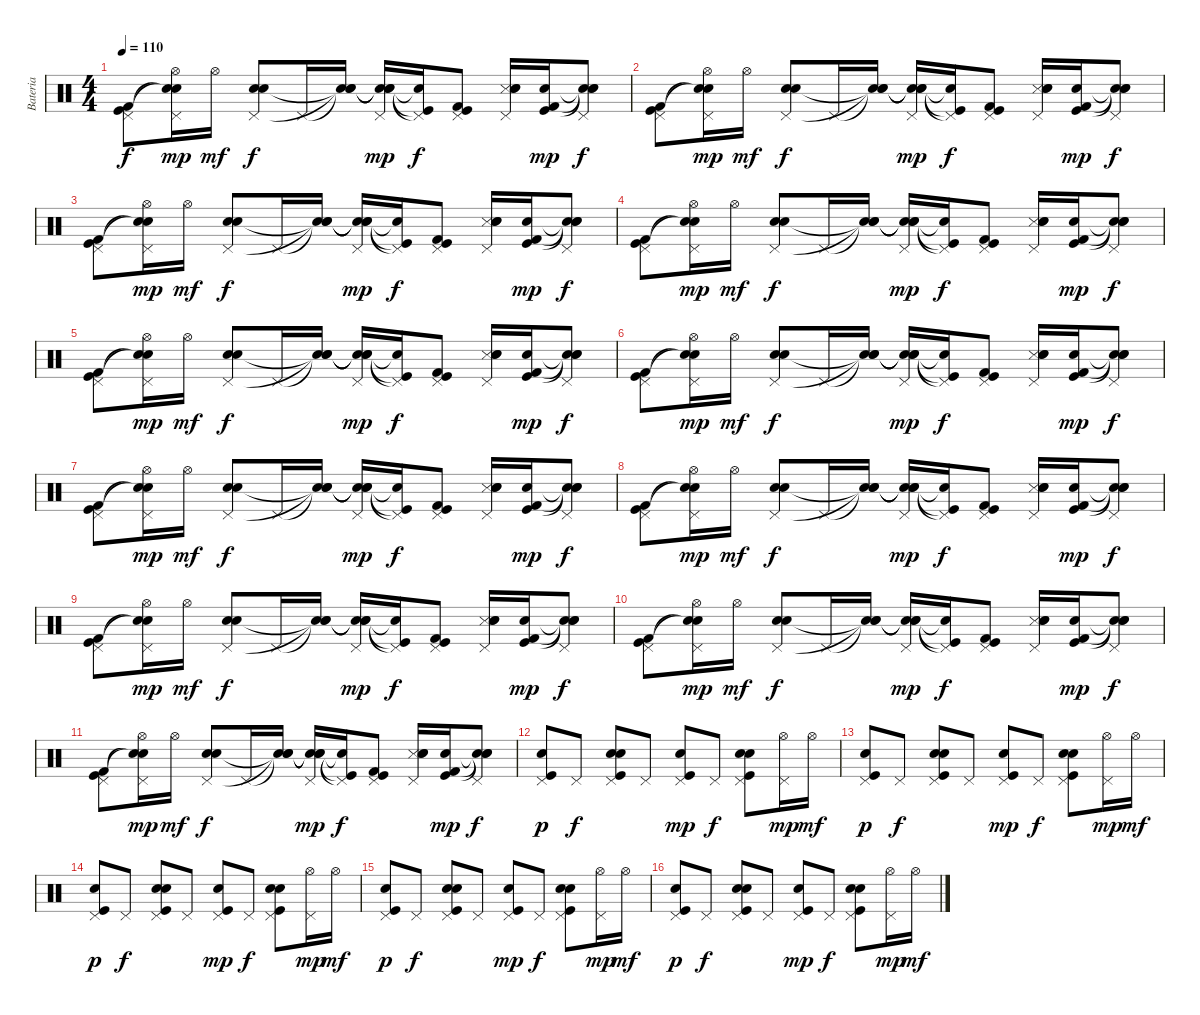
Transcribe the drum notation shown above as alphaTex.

\track ("Bateria" "Bateria") {instrument percussion}
\staff {score}
\articulation defaults
\ts (4 4)
\tempo 110
\clef neutral
\ks c
("Kick (hit)" "Kick (hit) 2" "Pedal Hi-Hat (hit)").8{dy f} ("Snare (hit)"{t} "Snare (hit)"{t} "Hi-Hat (open)" "Pedal Hi-Hat (hit)").16{dy mp} "Hi-Hat (open)".16{dy mf} ("Snare (hit) 2" "Electric Snare (hit)" "Pedal Hi-Hat (hit)").8{dy f} "Pedal Hi-Hat (hit)".16 ("Snare (hit)"{t} "Snare (hit)"{t} "Snare (hit)"{t}).16 ("Snare (hit)"{t} "Snare (hit)"{t} "Snare (hit)"{t} "Pedal Hi-Hat (hit)").16{dy mp} ("Snare (hit) 2"{t} "Pedal Hi-Hat (hit)"{t} "Kick (hit)"{t}).16{dy f} ("Kick (hit) 2" "Kick (hit)" "Pedal Hi-Hat (hit)").8 ("Snare (side stick) 3" "Electric Snare (hit)" "Snare (hit) 2" "Pedal Hi-Hat (hit)").16 ("Kick (hit) 2" "Snare (hit) 2" "Kick (hit)").16{dy mp} ("Snare (hit)"{t} "Snare (hit)"{t} "Snare (hit)"{t} "Pedal Hi-Hat (hit)").8{dy f} |
("Kick (hit)" "Kick (hit) 2" "Pedal Hi-Hat (hit)").8 ("Snare (hit)"{t} "Snare (hit)"{t} "Hi-Hat (open)" "Pedal Hi-Hat (hit)").16{dy mp} "Hi-Hat (open)".16{dy mf} ("Snare (hit) 2" "Electric Snare (hit)" "Pedal Hi-Hat (hit)").8{dy f} "Pedal Hi-Hat (hit)".16 ("Snare (hit)"{t} "Snare (hit)"{t} "Snare (hit)"{t}).16 ("Snare (hit)"{t} "Snare (hit)"{t} "Snare (hit)"{t} "Pedal Hi-Hat (hit)").16{dy mp} ("Snare (hit) 2"{t} "Pedal Hi-Hat (hit)"{t} "Kick (hit)"{t}).16{dy f} ("Kick (hit) 2" "Kick (hit)" "Pedal Hi-Hat (hit)").8 ("Snare (side stick) 3" "Electric Snare (hit)" "Snare (hit) 2" "Pedal Hi-Hat (hit)").16 ("Kick (hit) 2" "Snare (hit) 2" "Kick (hit)").16{dy mp} ("Snare (hit)"{t} "Snare (hit)"{t} "Snare (hit)"{t} "Pedal Hi-Hat (hit)").8{dy f} |
("Kick (hit)" "Kick (hit) 2" "Pedal Hi-Hat (hit)").8 ("Snare (hit)"{t} "Snare (hit)"{t} "Hi-Hat (open)" "Pedal Hi-Hat (hit)").16{dy mp} "Hi-Hat (open)".16{dy mf} ("Snare (hit) 2" "Electric Snare (hit)" "Pedal Hi-Hat (hit)").8{dy f} "Pedal Hi-Hat (hit)".16 ("Snare (hit)"{t} "Snare (hit)"{t} "Snare (hit)"{t}).16 ("Snare (hit)"{t} "Snare (hit)"{t} "Snare (hit)"{t} "Pedal Hi-Hat (hit)").16{dy mp} ("Snare (hit) 2"{t} "Pedal Hi-Hat (hit)"{t} "Kick (hit)"{t}).16{dy f} ("Kick (hit) 2" "Kick (hit)" "Pedal Hi-Hat (hit)").8 ("Snare (side stick) 3" "Electric Snare (hit)" "Snare (hit) 2" "Pedal Hi-Hat (hit)").16 ("Kick (hit) 2" "Snare (hit) 2" "Kick (hit)").16{dy mp} ("Snare (hit)"{t} "Snare (hit)"{t} "Snare (hit)"{t} "Pedal Hi-Hat (hit)").8{dy f} |
("Kick (hit)" "Kick (hit) 2" "Pedal Hi-Hat (hit)").8 ("Snare (hit)"{t} "Snare (hit)"{t} "Hi-Hat (open)" "Pedal Hi-Hat (hit)").16{dy mp} "Hi-Hat (open)".16{dy mf} ("Snare (hit) 2" "Electric Snare (hit)" "Pedal Hi-Hat (hit)").8{dy f} "Pedal Hi-Hat (hit)".16 ("Snare (hit)"{t} "Snare (hit)"{t} "Snare (hit)"{t}).16 ("Snare (hit)"{t} "Snare (hit)"{t} "Snare (hit)"{t} "Pedal Hi-Hat (hit)").16{dy mp} ("Snare (hit) 2"{t} "Pedal Hi-Hat (hit)"{t} "Kick (hit)"{t}).16{dy f} ("Kick (hit) 2" "Kick (hit)" "Pedal Hi-Hat (hit)").8 ("Snare (side stick) 3" "Electric Snare (hit)" "Snare (hit) 2" "Pedal Hi-Hat (hit)").16 ("Kick (hit) 2" "Snare (hit) 2" "Kick (hit)").16{dy mp} ("Snare (hit)"{t} "Snare (hit)"{t} "Snare (hit)"{t} "Pedal Hi-Hat (hit)").8{dy f} |
("Kick (hit)" "Kick (hit) 2" "Pedal Hi-Hat (hit)").8 ("Snare (hit)"{t} "Snare (hit)"{t} "Hi-Hat (open)" "Pedal Hi-Hat (hit)").16{dy mp} "Hi-Hat (open)".16{dy mf} ("Snare (hit) 2" "Electric Snare (hit)" "Pedal Hi-Hat (hit)").8{dy f} "Pedal Hi-Hat (hit)".16 ("Snare (hit)"{t} "Snare (hit)"{t} "Snare (hit)"{t}).16 ("Snare (hit)"{t} "Snare (hit)"{t} "Snare (hit)"{t} "Pedal Hi-Hat (hit)").16{dy mp} ("Snare (hit) 2"{t} "Pedal Hi-Hat (hit)"{t} "Kick (hit)"{t}).16{dy f} ("Kick (hit) 2" "Kick (hit)" "Pedal Hi-Hat (hit)").8 ("Snare (side stick) 3" "Electric Snare (hit)" "Snare (hit) 2" "Pedal Hi-Hat (hit)").16 ("Kick (hit) 2" "Snare (hit) 2" "Kick (hit)").16{dy mp} ("Snare (hit)"{t} "Snare (hit)"{t} "Snare (hit)"{t} "Pedal Hi-Hat (hit)").8{dy f} |
("Kick (hit)" "Kick (hit) 2" "Pedal Hi-Hat (hit)").8 ("Snare (hit)"{t} "Snare (hit)"{t} "Hi-Hat (open)" "Pedal Hi-Hat (hit)").16{dy mp} "Hi-Hat (open)".16{dy mf} ("Snare (hit) 2" "Electric Snare (hit)" "Pedal Hi-Hat (hit)").8{dy f} "Pedal Hi-Hat (hit)".16 ("Snare (hit)"{t} "Snare (hit)"{t} "Snare (hit)"{t}).16 ("Snare (hit)"{t} "Snare (hit)"{t} "Snare (hit)"{t} "Pedal Hi-Hat (hit)").16{dy mp} ("Snare (hit) 2"{t} "Pedal Hi-Hat (hit)"{t} "Kick (hit)"{t}).16{dy f} ("Kick (hit) 2" "Kick (hit)" "Pedal Hi-Hat (hit)").8 ("Snare (side stick) 3" "Electric Snare (hit)" "Snare (hit) 2" "Pedal Hi-Hat (hit)").16 ("Kick (hit) 2" "Snare (hit) 2" "Kick (hit)").16{dy mp} ("Snare (hit)"{t} "Snare (hit)"{t} "Snare (hit)"{t} "Pedal Hi-Hat (hit)").8{dy f} |
("Kick (hit)" "Kick (hit) 2" "Pedal Hi-Hat (hit)").8 ("Snare (hit)"{t} "Snare (hit)"{t} "Hi-Hat (open)" "Pedal Hi-Hat (hit)").16{dy mp} "Hi-Hat (open)".16{dy mf} ("Snare (hit) 2" "Electric Snare (hit)" "Pedal Hi-Hat (hit)").8{dy f} "Pedal Hi-Hat (hit)".16 ("Snare (hit)"{t} "Snare (hit)"{t} "Snare (hit)"{t}).16 ("Snare (hit)"{t} "Snare (hit)"{t} "Snare (hit)"{t} "Pedal Hi-Hat (hit)").16{dy mp} ("Snare (hit) 2"{t} "Pedal Hi-Hat (hit)"{t} "Kick (hit)"{t}).16{dy f} ("Kick (hit) 2" "Kick (hit)" "Pedal Hi-Hat (hit)").8 ("Snare (side stick) 3" "Electric Snare (hit)" "Snare (hit) 2" "Pedal Hi-Hat (hit)").16 ("Kick (hit) 2" "Snare (hit) 2" "Kick (hit)").16{dy mp} ("Snare (hit)"{t} "Snare (hit)"{t} "Snare (hit)"{t} "Pedal Hi-Hat (hit)").8{dy f} |
("Kick (hit)" "Kick (hit) 2" "Pedal Hi-Hat (hit)").8 ("Snare (hit)"{t} "Snare (hit)"{t} "Hi-Hat (open)" "Pedal Hi-Hat (hit)").16{dy mp} "Hi-Hat (open)".16{dy mf} ("Snare (hit) 2" "Electric Snare (hit)" "Pedal Hi-Hat (hit)").8{dy f} "Pedal Hi-Hat (hit)".16 ("Snare (hit)"{t} "Snare (hit)"{t} "Snare (hit)"{t}).16 ("Snare (hit)"{t} "Snare (hit)"{t} "Snare (hit)"{t} "Pedal Hi-Hat (hit)").16{dy mp} ("Snare (hit) 2"{t} "Pedal Hi-Hat (hit)"{t} "Kick (hit)"{t}).16{dy f} ("Kick (hit) 2" "Kick (hit)" "Pedal Hi-Hat (hit)").8 ("Snare (side stick) 3" "Electric Snare (hit)" "Snare (hit) 2" "Pedal Hi-Hat (hit)").16 ("Kick (hit) 2" "Snare (hit) 2" "Kick (hit)").16{dy mp} ("Snare (hit)"{t} "Snare (hit)"{t} "Snare (hit)"{t} "Pedal Hi-Hat (hit)").8{dy f} |
("Kick (hit)" "Kick (hit) 2" "Pedal Hi-Hat (hit)").8 ("Snare (hit)"{t} "Snare (hit)"{t} "Hi-Hat (open)" "Pedal Hi-Hat (hit)").16{dy mp} "Hi-Hat (open)".16{dy mf} ("Snare (hit) 2" "Electric Snare (hit)" "Pedal Hi-Hat (hit)").8{dy f} "Pedal Hi-Hat (hit)".16 ("Snare (hit)"{t} "Snare (hit)"{t} "Snare (hit)"{t}).16 ("Snare (hit)"{t} "Snare (hit)"{t} "Snare (hit)"{t} "Pedal Hi-Hat (hit)").16{dy mp} ("Snare (hit) 2"{t} "Pedal Hi-Hat (hit)"{t} "Kick (hit)"{t}).16{dy f} ("Kick (hit) 2" "Kick (hit)" "Pedal Hi-Hat (hit)").8 ("Snare (side stick) 3" "Electric Snare (hit)" "Snare (hit) 2" "Pedal Hi-Hat (hit)").16 ("Kick (hit) 2" "Snare (hit) 2" "Kick (hit)").16{dy mp} ("Snare (hit)"{t} "Snare (hit)"{t} "Snare (hit)"{t} "Pedal Hi-Hat (hit)").8{dy f} |
("Kick (hit)" "Kick (hit) 2" "Pedal Hi-Hat (hit)").8 ("Snare (hit)"{t} "Snare (hit)"{t} "Hi-Hat (open)" "Pedal Hi-Hat (hit)").16{dy mp} "Hi-Hat (open)".16{dy mf} ("Snare (hit) 2" "Electric Snare (hit)" "Pedal Hi-Hat (hit)").8{dy f} "Pedal Hi-Hat (hit)".16 ("Snare (hit)"{t} "Snare (hit)"{t} "Snare (hit)"{t}).16 ("Snare (hit)"{t} "Snare (hit)"{t} "Snare (hit)"{t} "Pedal Hi-Hat (hit)").16{dy mp} ("Snare (hit) 2"{t} "Pedal Hi-Hat (hit)"{t} "Kick (hit)"{t}).16{dy f} ("Kick (hit) 2" "Kick (hit)" "Pedal Hi-Hat (hit)").8 ("Snare (side stick) 3" "Electric Snare (hit)" "Snare (hit) 2" "Pedal Hi-Hat (hit)").16 ("Kick (hit) 2" "Snare (hit) 2" "Kick (hit)").16{dy mp} ("Snare (hit)"{t} "Snare (hit)"{t} "Snare (hit)"{t} "Pedal Hi-Hat (hit)").8{dy f} |
("Kick (hit)" "Kick (hit) 2" "Pedal Hi-Hat (hit)").8 ("Snare (hit)"{t} "Snare (hit)"{t} "Hi-Hat (open)" "Pedal Hi-Hat (hit)").16{dy mp} "Hi-Hat (open)".16{dy mf} ("Snare (hit) 2" "Electric Snare (hit)" "Pedal Hi-Hat (hit)").8{dy f} "Pedal Hi-Hat (hit)".16 ("Snare (hit)"{t} "Snare (hit)"{t} "Snare (hit)"{t}).16 ("Snare (hit)"{t} "Snare (hit)"{t} "Snare (hit)"{t} "Pedal Hi-Hat (hit)").16{dy mp} ("Snare (hit) 2"{t} "Pedal Hi-Hat (hit)"{t} "Kick (hit)"{t}).16{dy f} ("Kick (hit) 2" "Kick (hit)" "Pedal Hi-Hat (hit)").8 ("Snare (side stick) 3" "Electric Snare (hit)" "Snare (hit) 2" "Pedal Hi-Hat (hit)").16 ("Kick (hit) 2" "Snare (hit) 2" "Kick (hit)").16{dy mp} ("Snare (hit)"{t} "Snare (hit)"{t} "Snare (hit)"{t} "Pedal Hi-Hat (hit)").8{dy f} |
("Kick (hit)" "Electric Snare (hit)" "Pedal Hi-Hat (hit)").8{dy p} "Pedal Hi-Hat (hit)".8{dy f} ("Kick (hit)" "Electric Snare (hit)" "Snare (hit) 2" "Pedal Hi-Hat (hit)").8 "Pedal Hi-Hat (hit)".8 ("Kick (hit)" "Electric Snare (hit)" "Pedal Hi-Hat (hit)").8{dy mp} "Pedal Hi-Hat (hit)".8{dy f} ("Kick (hit)" "Electric Snare (hit)" "Snare (hit) 2" "Pedal Hi-Hat (hit)").8 ("Pedal Hi-Hat (hit)" "Hi-Hat (open)").16{dy mp} "Hi-Hat (open)".16{dy mf} |
("Kick (hit)" "Electric Snare (hit)" "Pedal Hi-Hat (hit)").8{dy p} "Pedal Hi-Hat (hit)".8{dy f} ("Kick (hit)" "Electric Snare (hit)" "Snare (hit) 2" "Pedal Hi-Hat (hit)").8 "Pedal Hi-Hat (hit)".8 ("Kick (hit)" "Electric Snare (hit)" "Pedal Hi-Hat (hit)").8{dy mp} "Pedal Hi-Hat (hit)".8{dy f} ("Kick (hit)" "Electric Snare (hit)" "Snare (hit) 2" "Pedal Hi-Hat (hit)").8 ("Pedal Hi-Hat (hit)" "Hi-Hat (open)").16{dy mp} "Hi-Hat (open)".16{dy mf} |
("Kick (hit)" "Electric Snare (hit)" "Pedal Hi-Hat (hit)").8{dy p} "Pedal Hi-Hat (hit)".8{dy f} ("Kick (hit)" "Electric Snare (hit)" "Snare (hit) 2" "Pedal Hi-Hat (hit)").8 "Pedal Hi-Hat (hit)".8 ("Kick (hit)" "Electric Snare (hit)" "Pedal Hi-Hat (hit)").8{dy mp} "Pedal Hi-Hat (hit)".8{dy f} ("Kick (hit)" "Electric Snare (hit)" "Snare (hit) 2" "Pedal Hi-Hat (hit)").8 ("Pedal Hi-Hat (hit)" "Hi-Hat (open)").16{dy mp} "Hi-Hat (open)".16{dy mf} |
("Kick (hit)" "Electric Snare (hit)" "Pedal Hi-Hat (hit)").8{dy p} "Pedal Hi-Hat (hit)".8{dy f} ("Kick (hit)" "Electric Snare (hit)" "Snare (hit) 2" "Pedal Hi-Hat (hit)").8 "Pedal Hi-Hat (hit)".8 ("Kick (hit)" "Electric Snare (hit)" "Pedal Hi-Hat (hit)").8{dy mp} "Pedal Hi-Hat (hit)".8{dy f} ("Kick (hit)" "Electric Snare (hit)" "Snare (hit) 2" "Pedal Hi-Hat (hit)").8 ("Pedal Hi-Hat (hit)" "Hi-Hat (open)").16{dy mp} "Hi-Hat (open)".16{dy mf} |
("Kick (hit)" "Electric Snare (hit)" "Pedal Hi-Hat (hit)").8{dy p} "Pedal Hi-Hat (hit)".8{dy f} ("Kick (hit)" "Electric Snare (hit)" "Snare (hit) 2" "Pedal Hi-Hat (hit)").8 "Pedal Hi-Hat (hit)".8 ("Kick (hit)" "Electric Snare (hit)" "Pedal Hi-Hat (hit)").8{dy mp} "Pedal Hi-Hat (hit)".8{dy f} ("Kick (hit)" "Electric Snare (hit)" "Snare (hit) 2" "Pedal Hi-Hat (hit)").8 ("Pedal Hi-Hat (hit)" "Hi-Hat (open)").16{dy mp} "Hi-Hat (open)".16{dy mf}
